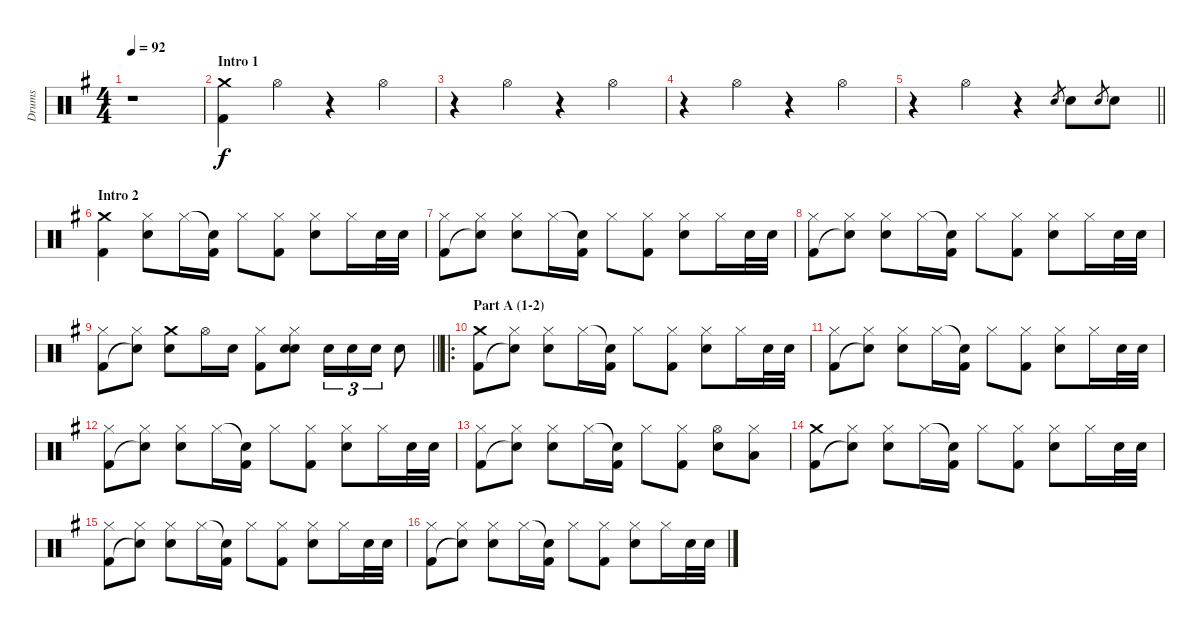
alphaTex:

\track ("Drums" "Drums") {instrument percussion}
\staff {score}
\articulation defaults
\ts (4 4)
\tempo 92
\clef neutral
\ks g
r.1{dy f} |
\section ("" "Intro 1")
("Crash medium (hit)" "Kick (hit) 2").4 "Hi-Hat (open)".4 r.4 "Hi-Hat (open)".4 |
r.4 "Hi-Hat (open)".4 r.4 "Hi-Hat (open)".4 |
r.4 "Hi-Hat (open)".4 r.4 "Hi-Hat (open)".4 |
\barLineRight lightlight
r.4 "Hi-Hat (open)".4 r.4 "Electric Snare (hit)".8{gr} "Electric Snare (hit)".8 "Electric Snare (hit)".8{gr} "Electric Snare (hit)".8 |
\section ("" "Intro 2")
("Crash medium (hit)" "Kick (hit) 2").4 ("Hi-Hat (closed)" "Electric Snare (hit)").8 "Hi-Hat (closed)".16 ("Snare (hit)"{t} "Kick (hit) 2").16 "Hi-Hat (closed)".8 ("Hi-Hat (closed)" "Kick (hit) 2").8 ("Hi-Hat (closed)" "Electric Snare (hit)").8 "Hi-Hat (closed)".16 "Electric Snare (hit)".32 "Electric Snare (hit)".32 |
("Hi-Hat (closed)" "Kick (hit) 2").8 ("Hi-Hat (closed)" "Snare (hit)"{t}).8 ("Hi-Hat (closed)" "Electric Snare (hit)").8 "Hi-Hat (closed)".16 ("Snare (hit)"{t} "Kick (hit) 2").16 "Hi-Hat (closed)".8 ("Hi-Hat (closed)" "Kick (hit) 2").8 ("Hi-Hat (closed)" "Electric Snare (hit)").8 "Hi-Hat (closed)".16 "Electric Snare (hit)".32 "Electric Snare (hit)".32 |
("Hi-Hat (closed)" "Kick (hit) 2").8 ("Hi-Hat (closed)" "Snare (hit)"{t}).8 ("Hi-Hat (closed)" "Electric Snare (hit)").8 "Hi-Hat (closed)".16 ("Snare (hit)"{t} "Kick (hit) 2").16 "Hi-Hat (closed)".8 ("Hi-Hat (closed)" "Kick (hit) 2").8 ("Hi-Hat (closed)" "Electric Snare (hit)").8 "Hi-Hat (closed)".16 "Electric Snare (hit)".32 "Electric Snare (hit)".32 |
\barLineRight lightlight
("Hi-Hat (closed)" "Kick (hit) 2").8 ("Hi-Hat (closed)" "Snare (hit)"{t}).8 ("Crash medium (hit)" "Electric Snare (hit)").8 "Hi-Hat (open)".16 "Electric Snare (hit)".16 ("Hi-Hat (closed)" "Kick (hit) 2").8 ("Hi-Hat (closed)" "Electric Snare (hit)" "Snare (hit)").8 "Electric Snare (hit)".16{tu (3 2)} "Electric Snare (hit)".16{tu (3 2)} "Electric Snare (hit)".16{tu (3 2)} "Electric Snare (hit)".8 |
\ro
\section ("" "Part A (1-2)")
("Crash medium (hit)" "Kick (hit) 2").8 ("Hi-Hat (closed)" "Snare (hit)"{t}).8 ("Hi-Hat (closed)" "Electric Snare (hit)").8 "Hi-Hat (closed)".16 ("Snare (hit)"{t} "Kick (hit) 2").16 "Hi-Hat (closed)".8 ("Hi-Hat (closed)" "Kick (hit) 2").8 ("Hi-Hat (closed)" "Electric Snare (hit)").8 "Hi-Hat (closed)".16 "Electric Snare (hit)".32 "Electric Snare (hit)".32 |
("Hi-Hat (closed)" "Kick (hit) 2").8 ("Hi-Hat (closed)" "Snare (hit)"{t}).8 ("Hi-Hat (closed)" "Electric Snare (hit)").8 "Hi-Hat (closed)".16 ("Snare (hit)"{t} "Kick (hit) 2").16 "Hi-Hat (closed)".8 ("Hi-Hat (closed)" "Kick (hit) 2").8 ("Hi-Hat (closed)" "Electric Snare (hit)").8 "Hi-Hat (closed)".16 "Electric Snare (hit)".32 "Electric Snare (hit)".32 |
("Hi-Hat (closed)" "Kick (hit) 2").8 ("Hi-Hat (closed)" "Snare (hit)"{t}).8 ("Hi-Hat (closed)" "Electric Snare (hit)").8 "Hi-Hat (closed)".16 ("Snare (hit)"{t} "Kick (hit) 2").16 "Hi-Hat (closed)".8 ("Hi-Hat (closed)" "Kick (hit) 2").8 ("Hi-Hat (closed)" "Electric Snare (hit)").8 "Hi-Hat (closed)".16 "Electric Snare (hit)".32 "Electric Snare (hit)".32 |
("Hi-Hat (closed)" "Kick (hit) 2").8 ("Hi-Hat (closed)" "Snare (hit)"{t}).8 ("Hi-Hat (closed)" "Electric Snare (hit)").8 "Hi-Hat (closed)".16 ("Snare (hit)"{t} "Kick (hit) 2").16 "Hi-Hat (closed)".8 ("Hi-Hat (closed)" "Kick (hit) 2").8 ("Hi-Hat (open)" "Electric Snare (hit)").8 ("Hi-Hat (closed)" "Low Tom (hit)").8 |
("Crash medium (hit)" "Kick (hit) 2").8 ("Hi-Hat (closed)" "Snare (hit)"{t}).8 ("Hi-Hat (closed)" "Electric Snare (hit)").8 "Hi-Hat (closed)".16 ("Snare (hit)"{t} "Kick (hit) 2").16 "Hi-Hat (closed)".8 ("Hi-Hat (closed)" "Kick (hit) 2").8 ("Hi-Hat (closed)" "Electric Snare (hit)").8 "Hi-Hat (closed)".16 "Electric Snare (hit)".32 "Electric Snare (hit)".32 |
("Hi-Hat (closed)" "Kick (hit) 2").8 ("Hi-Hat (closed)" "Snare (hit)"{t}).8 ("Hi-Hat (closed)" "Electric Snare (hit)").8 "Hi-Hat (closed)".16 ("Snare (hit)"{t} "Kick (hit) 2").16 "Hi-Hat (closed)".8 ("Hi-Hat (closed)" "Kick (hit) 2").8 ("Hi-Hat (closed)" "Electric Snare (hit)").8 "Hi-Hat (closed)".16 "Electric Snare (hit)".32 "Electric Snare (hit)".32 |
("Hi-Hat (closed)" "Kick (hit) 2").8 ("Hi-Hat (closed)" "Snare (hit)"{t}).8 ("Hi-Hat (closed)" "Electric Snare (hit)").8 "Hi-Hat (closed)".16 ("Snare (hit)"{t} "Kick (hit) 2").16 "Hi-Hat (closed)".8 ("Hi-Hat (closed)" "Kick (hit) 2").8 ("Hi-Hat (closed)" "Electric Snare (hit)").8 "Hi-Hat (closed)".16 "Electric Snare (hit)".32 "Electric Snare (hit)".32
